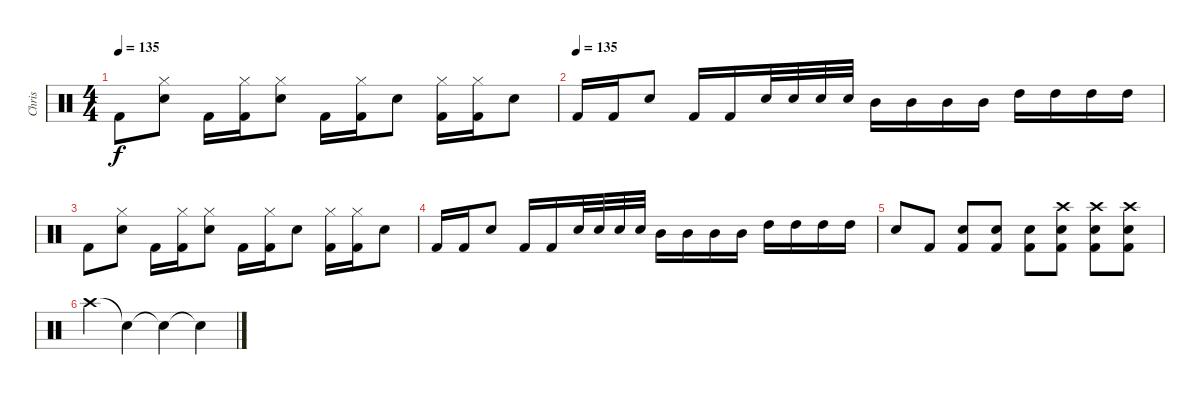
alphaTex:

\track ("Chris" "Chris") {instrument percussion}
\staff {score}
\articulation defaults
\ts (4 4)
\tempo 135
\clef neutral
\ks c "Kick (hit) 2".8{dy f}
("Hi-Hat (closed)" "Snare (hit) 2").8 "Kick (hit) 2".16 ("Hi-Hat (closed)" "Kick (hit) 2").16 ("Hi-Hat (closed)" "Snare (hit) 2").8 "Kick (hit) 2".16 ("Hi-Hat (closed)" "Kick (hit) 2").16 "Snare (hit) 2".8 ("Hi-Hat (closed)" "Kick (hit) 2").16 ("Hi-Hat (closed)" "Kick (hit) 2").16 "Snare (hit) 2".8 |
\tempo (135)
"Kick (hit) 2".16 "Kick (hit) 2".16 "Snare (hit) 2".8 "Kick (hit) 2".16 "Kick (hit) 2".16 "Snare (hit) 2".32 "Snare (hit) 2".32 "Snare (hit) 2".32 "Snare (hit) 2".32 "Mid Tom (hit)".16 "Mid Tom (hit)".16 "Mid Tom (hit)".16 "Mid Tom (hit)".16 "High Tom (hit)".16 "High Tom (hit)".16 "High Tom (hit)".16 "High Tom (hit)".16 |
"Kick (hit) 2".8 ("Hi-Hat (closed)" "Snare (hit) 2").8 "Kick (hit) 2".16 ("Hi-Hat (closed)" "Kick (hit) 2").16 ("Hi-Hat (closed)" "Snare (hit) 2").8 "Kick (hit) 2".16 ("Hi-Hat (closed)" "Kick (hit) 2").16 "Snare (hit) 2".8 ("Hi-Hat (closed)" "Kick (hit) 2").16 ("Hi-Hat (closed)" "Kick (hit) 2").16 "Snare (hit) 2".8 |
"Kick (hit) 2".16 "Kick (hit) 2".16 "Snare (hit) 2".8 "Kick (hit) 2".16 "Kick (hit) 2".16 "Snare (hit) 2".32 "Snare (hit) 2".32 "Snare (hit) 2".32 "Snare (hit) 2".32 "Mid Tom (hit)".16 "Mid Tom (hit)".16 "Mid Tom (hit)".16 "Mid Tom (hit)".16 "High Tom (hit)".16 "High Tom (hit)".16 "High Tom (hit)".16 "High Tom (hit)".16 |
"Snare (hit) 2".8 "Kick (hit) 2".8 ("Snare (hit) 2" "Kick (hit) 2").8 ("Snare (hit) 2" "Kick (hit) 2").8 ("Snare (hit) 2" "Kick (hit) 2").8 ("Snare (hit) 2" "Kick (hit) 2" "Crash high (hit)").8 ("Snare (hit) 2" "Kick (hit) 2" "Crash high (hit)").8 ("Snare (hit) 2" "Kick (hit) 2" "Crash high (hit)").8 |
"Crash high (hit)".4 "Snare (hit)"{t}.4 "Snare (hit)"{t}.4 "Snare (hit)"{t}.4
